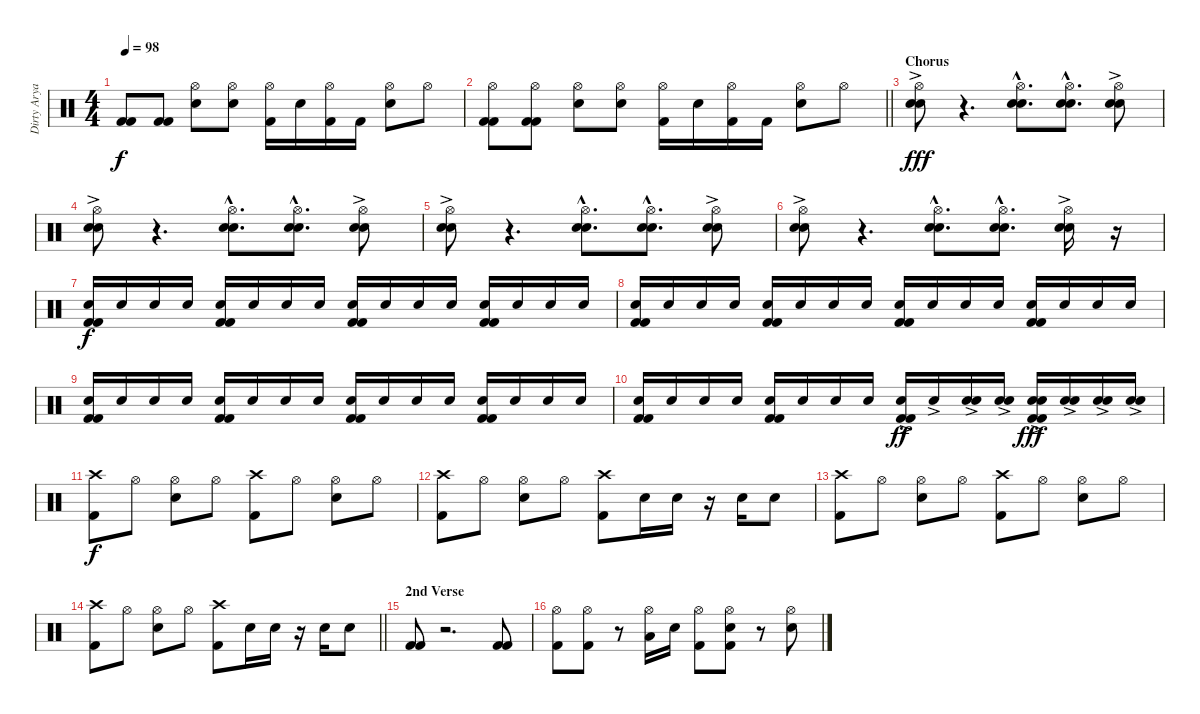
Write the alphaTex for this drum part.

\track ("Dirty Arya" "Dirty Arya") {instrument percussion}
\staff {score}
\articulation defaults
\ts (4 4)
\tempo 98
\clef neutral
\ks c
("Kick (hit) 2" "Kick (hit) 2").8{dy f} ("Kick (hit) 2" "Kick (hit) 2").8 ("Hi-Hat (open)" "Electric Snare (hit)").8 ("Hi-Hat (open)" "Electric Snare (hit)").8 ("Hi-Hat (open)" "Kick (hit) 2").16 "Electric Snare (hit)".16 ("Hi-Hat (open)" "Kick (hit) 2").16 "Kick (hit) 2".16 ("Hi-Hat (open)" "Electric Snare (hit)").8 "Hi-Hat (open)".8 |
\barLineRight lightlight
("Hi-Hat (open)" "Kick (hit) 2" "Kick (hit) 2").8 ("Hi-Hat (open)" "Kick (hit) 2" "Kick (hit) 2").8 ("Hi-Hat (open)" "Electric Snare (hit)").8 ("Hi-Hat (open)" "Electric Snare (hit)").8 ("Hi-Hat (open)" "Kick (hit) 2").16 "Electric Snare (hit)".16 ("Hi-Hat (open)" "Kick (hit) 2").16 "Kick (hit) 2".16 ("Hi-Hat (open)" "Electric Snare (hit)").8 "Hi-Hat (open)".8 |
\section ("" "Chorus")
("Hi-Hat (open)" "Electric Snare (hit)"{ac} "Electric Snare (hit)"{ac}).8{dy fff} r.4{d} ("Hi-Hat (open)"{hac} "Electric Snare (hit)"{hac} "Electric Snare (hit)"{hac}).8{d} ("Hi-Hat (open)"{hac} "Electric Snare (hit)"{hac} "Electric Snare (hit)"{hac}).8{d} ("Hi-Hat (open)" "Electric Snare (hit)"{ac} "Electric Snare (hit)"{ac}).8 |
("Hi-Hat (open)" "Electric Snare (hit)"{ac} "Electric Snare (hit)"{ac}).8 r.4{d} ("Hi-Hat (open)"{hac} "Electric Snare (hit)"{hac} "Electric Snare (hit)"{hac}).8{d} ("Hi-Hat (open)"{hac} "Electric Snare (hit)"{hac} "Electric Snare (hit)"{hac}).8{d} ("Hi-Hat (open)" "Electric Snare (hit)"{ac} "Electric Snare (hit)"{ac}).8 |
("Hi-Hat (open)" "Electric Snare (hit)"{ac} "Electric Snare (hit)"{ac}).8 r.4{d} ("Hi-Hat (open)"{hac} "Electric Snare (hit)"{hac} "Electric Snare (hit)"{hac}).8{d} ("Hi-Hat (open)"{hac} "Electric Snare (hit)"{hac} "Electric Snare (hit)"{hac}).8{d} ("Hi-Hat (open)" "Electric Snare (hit)"{ac} "Electric Snare (hit)"{ac}).8 |
("Hi-Hat (open)" "Electric Snare (hit)" "Electric Snare (hit)"{ac}).8 r.4{d} ("Hi-Hat (open)"{hac} "Electric Snare (hit)"{hac} "Electric Snare (hit)"{hac}).8{d} ("Hi-Hat (open)"{hac} "Electric Snare (hit)"{hac} "Electric Snare (hit)"{hac}).8{d} ("Hi-Hat (open)" "Electric Snare (hit)" "Electric Snare (hit)"{ac}).16 r.16{volume 7} |
("Electric Snare (hit)" "Kick (hit) 2" "Kick (hit) 2").16{dy f volume 16} "Electric Snare (hit)".16 "Electric Snare (hit)".16 "Electric Snare (hit)".16 ("Electric Snare (hit)" "Kick (hit) 2" "Kick (hit) 2").16 "Electric Snare (hit)".16 "Electric Snare (hit)".16 "Electric Snare (hit)".16 ("Electric Snare (hit)" "Kick (hit) 2" "Kick (hit) 2").16 "Electric Snare (hit)".16 "Electric Snare (hit)".16 "Electric Snare (hit)".16 ("Electric Snare (hit)" "Kick (hit) 2" "Kick (hit) 2").16 "Electric Snare (hit)".16 "Electric Snare (hit)".16 "Electric Snare (hit)".16 |
("Electric Snare (hit)" "Kick (hit) 2" "Kick (hit) 2").16 "Electric Snare (hit)".16 "Electric Snare (hit)".16 "Electric Snare (hit)".16 ("Electric Snare (hit)" "Kick (hit) 2" "Kick (hit) 2").16 "Electric Snare (hit)".16 "Electric Snare (hit)".16 "Electric Snare (hit)".16 ("Electric Snare (hit)" "Kick (hit) 2" "Kick (hit) 2").16 "Electric Snare (hit)".16 "Electric Snare (hit)".16 "Electric Snare (hit)".16 ("Electric Snare (hit)" "Kick (hit) 2" "Kick (hit) 2").16 "Electric Snare (hit)".16 "Electric Snare (hit)".16 "Electric Snare (hit)".16 |
("Electric Snare (hit)" "Kick (hit) 2" "Kick (hit) 2").16 "Electric Snare (hit)".16 "Electric Snare (hit)".16 "Electric Snare (hit)".16 ("Electric Snare (hit)" "Kick (hit) 2" "Kick (hit) 2").16 "Electric Snare (hit)".16 "Electric Snare (hit)".16 "Electric Snare (hit)".16 ("Electric Snare (hit)" "Kick (hit) 2" "Kick (hit) 2").16 "Electric Snare (hit)".16 "Electric Snare (hit)".16 "Electric Snare (hit)".16 ("Electric Snare (hit)" "Kick (hit) 2" "Kick (hit) 2").16 "Electric Snare (hit)".16 "Electric Snare (hit)".16 "Electric Snare (hit)".16 |
("Electric Snare (hit)" "Kick (hit) 2" "Kick (hit) 2").16 "Electric Snare (hit)".16 "Electric Snare (hit)".16 "Electric Snare (hit)".16 ("Electric Snare (hit)" "Kick (hit) 2" "Kick (hit) 2").16 "Electric Snare (hit)".16 "Electric Snare (hit)".16 "Electric Snare (hit)".16 ("Electric Snare (hit)"{ac} "Kick (hit) 2" "Kick (hit) 2").16{dy ff} "Electric Snare (hit)"{ac}.16 ("Electric Snare (hit)" "Electric Snare (hit)"{ac}).16 ("Electric Snare (hit)" "Electric Snare (hit)"{ac}).16 ("Electric Snare (hit)" "Electric Snare (hit)"{ac} "Kick (hit) 2" "Kick (hit) 2").16{dy fff} ("Electric Snare (hit)"{ac} "Electric Snare (hit)"{ac}).16 ("Electric Snare (hit)"{ac} "Electric Snare (hit)"{ac}).16 ("Electric Snare (hit)"{ac} "Electric Snare (hit)"{ac}).16 |
("Crash high (hit)" "Kick (hit) 2").8{dy f} "Hi-Hat (open)".8 ("Hi-Hat (open)" "Electric Snare (hit)").8 "Hi-Hat (open)".8 ("Crash high (hit)" "Kick (hit) 2").8 "Hi-Hat (open)".8 ("Hi-Hat (open)" "Electric Snare (hit)").8 "Hi-Hat (open)".8 |
("Crash high (hit)" "Kick (hit) 2").8 "Hi-Hat (open)".8 ("Hi-Hat (open)" "Electric Snare (hit)").8 "Hi-Hat (open)".8 ("Crash high (hit)" "Kick (hit) 2").8 "Electric Snare (hit)".16 "Electric Snare (hit)".16 r.16 "Electric Snare (hit)".16 "Electric Snare (hit)".8 |
("Crash high (hit)" "Kick (hit) 2").8 "Hi-Hat (open)".8 ("Hi-Hat (open)" "Electric Snare (hit)").8 "Hi-Hat (open)".8 ("Crash high (hit)" "Kick (hit) 2").8 "Hi-Hat (open)".8 ("Hi-Hat (open)" "Electric Snare (hit)").8 "Hi-Hat (open)".8 |
\barLineRight lightlight
("Crash high (hit)" "Kick (hit) 2").8 "Hi-Hat (open)".8 ("Hi-Hat (open)" "Electric Snare (hit)").8 "Hi-Hat (open)".8 ("Crash high (hit)" "Kick (hit) 2").8 "Electric Snare (hit)".16 "Electric Snare (hit)".16 r.16 "Electric Snare (hit)".16 "Electric Snare (hit)".8 |
\section ("" "2nd Verse")
("Kick (hit) 2" "Kick (hit) 2").8 r.2{d} ("Kick (hit) 2" "Kick (hit) 2").8 |
("Hi-Hat (open)" "Kick (hit) 2").8 ("Hi-Hat (open)" "Kick (hit) 2").8 r.8 ("Hi-Hat (open)" "Low Tom (hit)").16 "Electric Snare (hit)".16 ("Hi-Hat (open)" "Kick (hit) 2").8 ("Hi-Hat (open)" "Electric Snare (hit)" "Kick (hit) 2").8 r.8 ("Hi-Hat (open)" "Electric Snare (hit)").8
